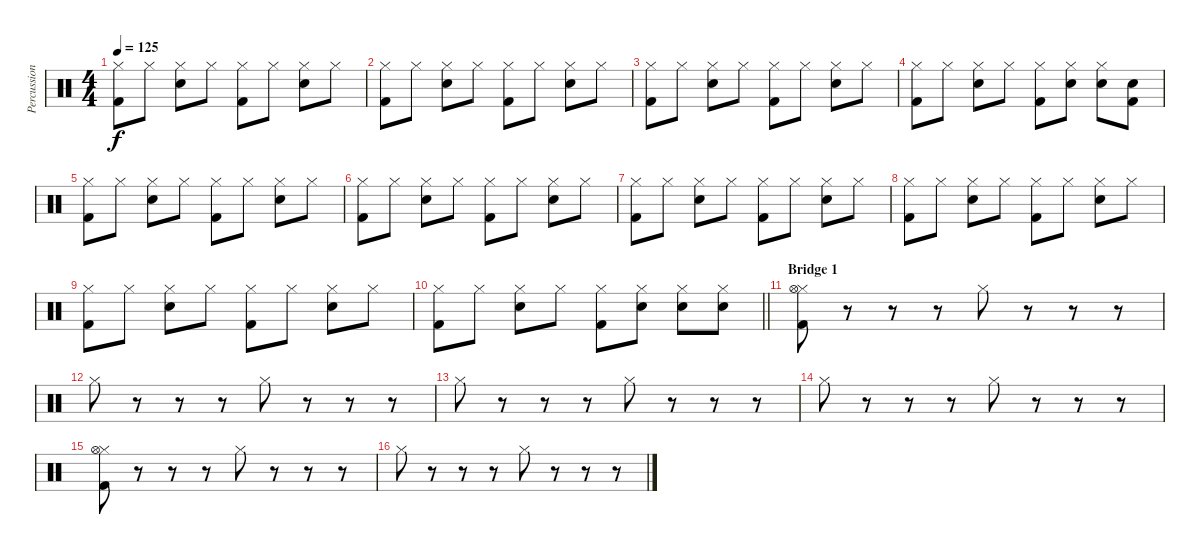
\track ("Percussion" "Percussion") {instrument percussion}
\staff {score}
\articulation defaults
\ts (4 4)
\tempo 125
\clef neutral
\ks c
("Kick (hit) 2" "Hi-Hat (closed)").8{dy f} "Hi-Hat (closed)".8 ("Electric Snare (hit)" "Hi-Hat (closed)").8 "Hi-Hat (closed)".8 ("Kick (hit) 2" "Hi-Hat (closed)").8 "Hi-Hat (closed)".8 ("Electric Snare (hit)" "Hi-Hat (closed)").8 "Hi-Hat (closed)".8 |
("Kick (hit) 2" "Hi-Hat (closed)").8 "Hi-Hat (closed)".8 ("Electric Snare (hit)" "Hi-Hat (closed)").8 "Hi-Hat (closed)".8 ("Kick (hit) 2" "Hi-Hat (closed)").8 "Hi-Hat (closed)".8 ("Electric Snare (hit)" "Hi-Hat (closed)").8 "Hi-Hat (closed)".8 |
("Kick (hit) 2" "Hi-Hat (closed)").8 "Hi-Hat (closed)".8 ("Electric Snare (hit)" "Hi-Hat (closed)").8 "Hi-Hat (closed)".8 ("Kick (hit) 2" "Hi-Hat (closed)").8 "Hi-Hat (closed)".8 ("Electric Snare (hit)" "Hi-Hat (closed)").8 "Hi-Hat (closed)".8 |
("Kick (hit) 2" "Hi-Hat (closed)").8 "Hi-Hat (closed)".8 ("Electric Snare (hit)" "Hi-Hat (closed)").8 "Hi-Hat (closed)".8 ("Kick (hit) 2" "Hi-Hat (closed)").8 ("Electric Snare (hit)" "Hi-Hat (closed)").8 ("Electric Snare (hit)" "Hi-Hat (closed)").8 ("Electric Snare (hit)" "Kick (hit) 2").8 |
("Kick (hit) 2" "Hi-Hat (closed)").8 "Hi-Hat (closed)".8 ("Electric Snare (hit)" "Hi-Hat (closed)").8 "Hi-Hat (closed)".8 ("Kick (hit) 2" "Hi-Hat (closed)").8 "Hi-Hat (closed)".8 ("Electric Snare (hit)" "Hi-Hat (closed)").8 "Hi-Hat (closed)".8 |
("Kick (hit) 2" "Hi-Hat (closed)").8 "Hi-Hat (closed)".8 ("Electric Snare (hit)" "Hi-Hat (closed)").8 "Hi-Hat (closed)".8 ("Kick (hit) 2" "Hi-Hat (closed)").8 "Hi-Hat (closed)".8 ("Electric Snare (hit)" "Hi-Hat (closed)").8 "Hi-Hat (closed)".8 |
("Kick (hit) 2" "Hi-Hat (closed)").8 "Hi-Hat (closed)".8 ("Electric Snare (hit)" "Hi-Hat (closed)").8 "Hi-Hat (closed)".8 ("Kick (hit) 2" "Hi-Hat (closed)").8 "Hi-Hat (closed)".8 ("Electric Snare (hit)" "Hi-Hat (closed)").8 "Hi-Hat (closed)".8 |
("Kick (hit) 2" "Hi-Hat (closed)").8 "Hi-Hat (closed)".8 ("Electric Snare (hit)" "Hi-Hat (closed)").8 "Hi-Hat (closed)".8 ("Kick (hit) 2" "Hi-Hat (closed)").8 "Hi-Hat (closed)".8 ("Electric Snare (hit)" "Hi-Hat (closed)").8 "Hi-Hat (closed)".8 |
("Kick (hit) 2" "Hi-Hat (closed)").8 "Hi-Hat (closed)".8 ("Electric Snare (hit)" "Hi-Hat (closed)").8 "Hi-Hat (closed)".8 ("Kick (hit) 2" "Hi-Hat (closed)").8 "Hi-Hat (closed)".8 ("Electric Snare (hit)" "Hi-Hat (closed)").8 "Hi-Hat (closed)".8 |
\barLineRight lightlight
("Kick (hit) 2" "Hi-Hat (closed)").8 "Hi-Hat (closed)".8 ("Electric Snare (hit)" "Hi-Hat (closed)").8 "Hi-Hat (closed)".8 ("Kick (hit) 2" "Hi-Hat (closed)").8 ("Electric Snare (hit)" "Hi-Hat (closed)").8 ("Electric Snare (hit)" "Hi-Hat (closed)").8 ("Electric Snare (hit)" "Hi-Hat (closed)").8 |
\section ("" "Bridge 1")
("Kick (hit) 2" "Hi-Hat (closed)" "Hi-Hat (open)").8 r.8 r.8 r.8 "Hi-Hat (closed)".8 r.8 r.8 r.8 |
"Hi-Hat (closed)".8 r.8 r.8 r.8 "Hi-Hat (closed)".8 r.8 r.8 r.8 |
"Hi-Hat (closed)".8 r.8 r.8 r.8 "Hi-Hat (closed)".8 r.8 r.8 r.8 |
"Hi-Hat (closed)".8 r.8 r.8 r.8 "Hi-Hat (closed)".8 r.8 r.8 r.8 |
("Kick (hit) 2" "Hi-Hat (closed)" "Hi-Hat (open)").8 r.8 r.8 r.8 "Hi-Hat (closed)".8 r.8 r.8 r.8 |
"Hi-Hat (closed)".8 r.8 r.8 r.8 "Hi-Hat (closed)".8 r.8 r.8 r.8
